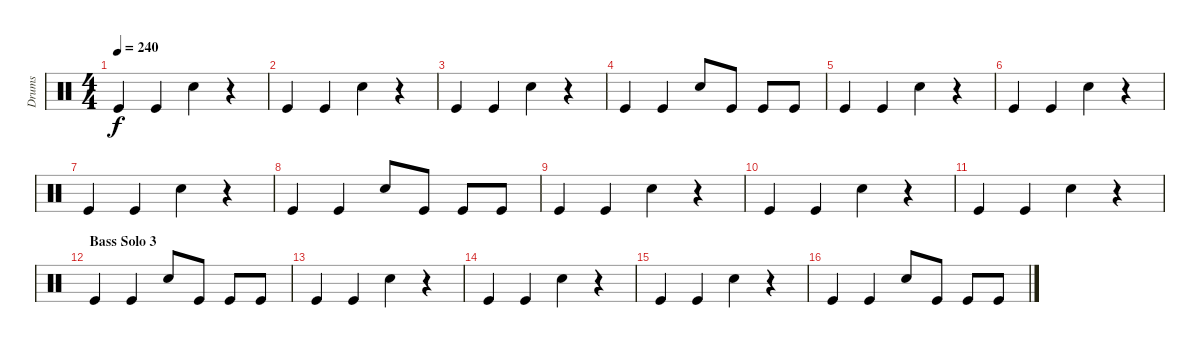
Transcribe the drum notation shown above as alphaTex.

\track ("Drums" "Drums") {instrument percussion}
\staff {score}
\articulation defaults
\ts (4 4)
\tempo 240
\clef neutral
\ks c "Kick (hit)".4{dy f} "Kick (hit)".4 "Snare (hit) 2".4
r.4 |
"Kick (hit)".4 "Kick (hit)".4 "Snare (hit) 2".4 r.4 |
"Kick (hit)".4 "Kick (hit)".4 "Snare (hit) 2".4 r.4 |
"Kick (hit)".4 "Kick (hit)".4 "Snare (hit) 2".8 "Kick (hit)".8 "Kick (hit)".8 "Kick (hit)".8 |
"Kick (hit)".4 "Kick (hit)".4 "Snare (hit) 2".4 r.4 |
"Kick (hit)".4 "Kick (hit)".4 "Snare (hit) 2".4 r.4 |
"Kick (hit)".4 "Kick (hit)".4 "Snare (hit) 2".4 r.4 |
"Kick (hit)".4 "Kick (hit)".4 "Snare (hit) 2".8 "Kick (hit)".8 "Kick (hit)".8 "Kick (hit)".8 |
"Kick (hit)".4 "Kick (hit)".4 "Snare (hit) 2".4 r.4 |
"Kick (hit)".4 "Kick (hit)".4 "Snare (hit) 2".4 r.4 |
"Kick (hit)".4 "Kick (hit)".4 "Snare (hit) 2".4 r.4 |
\section ("" "Bass Solo 3")
"Kick (hit)".4 "Kick (hit)".4 "Snare (hit) 2".8 "Kick (hit)".8 "Kick (hit)".8 "Kick (hit)".8 |
"Kick (hit)".4 "Kick (hit)".4 "Snare (hit) 2".4 r.4 |
"Kick (hit)".4 "Kick (hit)".4 "Snare (hit) 2".4 r.4 |
"Kick (hit)".4 "Kick (hit)".4 "Snare (hit) 2".4 r.4 |
"Kick (hit)".4 "Kick (hit)".4 "Snare (hit) 2".8 "Kick (hit)".8 "Kick (hit)".8 "Kick (hit)".8
